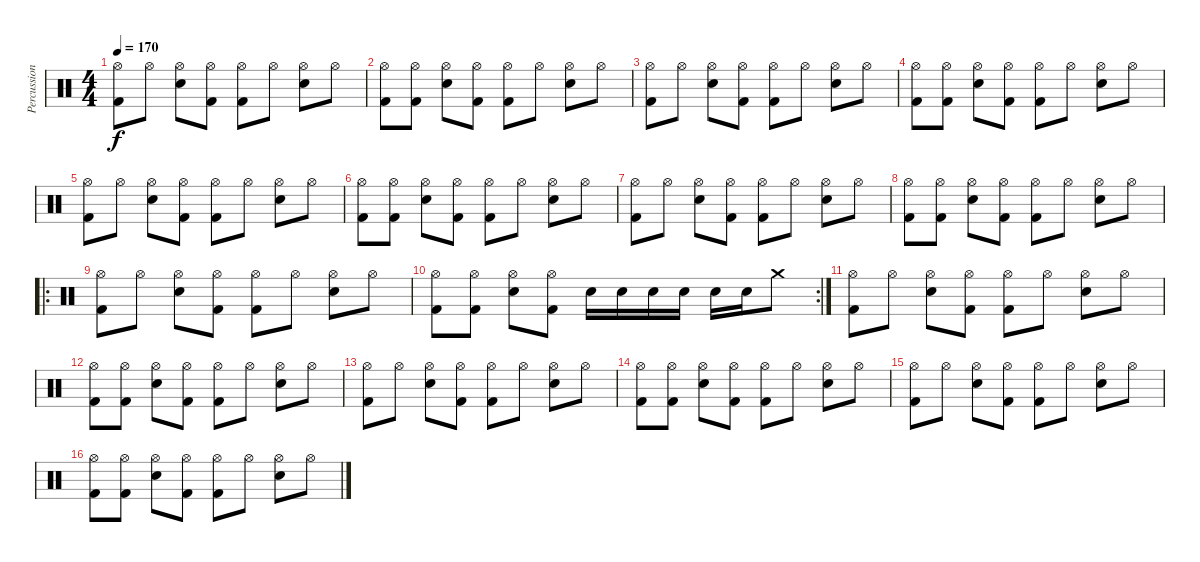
\track ("Percussion" "Percussion") {instrument percussion}
\staff {score}
\articulation defaults
\ts (4 4)
\tempo 170
\clef neutral
\ks c
("Hi-Hat (open)" "Kick (hit) 2").8{dy f} "Hi-Hat (open)".8 ("Hi-Hat (open)" "Snare (hit) 2").8 ("Hi-Hat (open)" "Kick (hit) 2").8 ("Hi-Hat (open)" "Kick (hit) 2").8 "Hi-Hat (open)".8 ("Hi-Hat (open)" "Snare (hit) 2").8 "Hi-Hat (open)".8 |
("Hi-Hat (open)" "Kick (hit) 2").8 ("Hi-Hat (open)" "Kick (hit) 2").8 ("Hi-Hat (open)" "Snare (hit) 2").8 ("Hi-Hat (open)" "Kick (hit) 2").8 ("Hi-Hat (open)" "Kick (hit) 2").8 "Hi-Hat (open)".8 ("Hi-Hat (open)" "Snare (hit) 2").8 "Hi-Hat (open)".8 |
("Hi-Hat (open)" "Kick (hit) 2").8 "Hi-Hat (open)".8 ("Hi-Hat (open)" "Snare (hit) 2").8 ("Hi-Hat (open)" "Kick (hit) 2").8 ("Hi-Hat (open)" "Kick (hit) 2").8 "Hi-Hat (open)".8 ("Hi-Hat (open)" "Snare (hit) 2").8 "Hi-Hat (open)".8 |
("Hi-Hat (open)" "Kick (hit) 2").8 ("Hi-Hat (open)" "Kick (hit) 2").8 ("Hi-Hat (open)" "Snare (hit) 2").8 ("Hi-Hat (open)" "Kick (hit) 2").8 ("Hi-Hat (open)" "Kick (hit) 2").8 "Hi-Hat (open)".8 ("Hi-Hat (open)" "Snare (hit) 2").8 "Hi-Hat (open)".8 |
("Hi-Hat (open)" "Kick (hit) 2").8 "Hi-Hat (open)".8 ("Hi-Hat (open)" "Snare (hit) 2").8 ("Hi-Hat (open)" "Kick (hit) 2").8 ("Hi-Hat (open)" "Kick (hit) 2").8 "Hi-Hat (open)".8 ("Hi-Hat (open)" "Snare (hit) 2").8 "Hi-Hat (open)".8 |
("Hi-Hat (open)" "Kick (hit) 2").8 ("Hi-Hat (open)" "Kick (hit) 2").8 ("Hi-Hat (open)" "Snare (hit) 2").8 ("Hi-Hat (open)" "Kick (hit) 2").8 ("Hi-Hat (open)" "Kick (hit) 2").8 "Hi-Hat (open)".8 ("Hi-Hat (open)" "Snare (hit) 2").8 "Hi-Hat (open)".8 |
("Hi-Hat (open)" "Kick (hit) 2").8 "Hi-Hat (open)".8 ("Hi-Hat (open)" "Snare (hit) 2").8 ("Hi-Hat (open)" "Kick (hit) 2").8 ("Hi-Hat (open)" "Kick (hit) 2").8 "Hi-Hat (open)".8 ("Hi-Hat (open)" "Snare (hit) 2").8 "Hi-Hat (open)".8 |
("Hi-Hat (open)" "Kick (hit) 2").8 ("Hi-Hat (open)" "Kick (hit) 2").8 ("Hi-Hat (open)" "Snare (hit) 2").8 ("Hi-Hat (open)" "Kick (hit) 2").8 ("Hi-Hat (open)" "Kick (hit) 2").8 "Hi-Hat (open)".8 ("Hi-Hat (open)" "Snare (hit) 2").8 "Hi-Hat (open)".8 |
\ro
("Hi-Hat (open)" "Kick (hit) 2").8 "Hi-Hat (open)".8 ("Hi-Hat (open)" "Snare (hit) 2").8 ("Hi-Hat (open)" "Kick (hit) 2").8 ("Hi-Hat (open)" "Kick (hit) 2").8 "Hi-Hat (open)".8 ("Hi-Hat (open)" "Snare (hit) 2").8 "Hi-Hat (open)".8 |
\rc 2
("Hi-Hat (open)" "Kick (hit) 2").8 ("Hi-Hat (open)" "Kick (hit) 2").8 ("Hi-Hat (open)" "Snare (hit) 2").8 ("Hi-Hat (open)" "Kick (hit) 2").8 "Snare (hit) 2".16 "Snare (hit) 2".16 "Snare (hit) 2".16 "Snare (hit) 2".16 "Snare (hit) 2".16 "Snare (hit) 2".16 "Crash medium (hit)".8 |
("Hi-Hat (open)" "Kick (hit) 2").8 "Hi-Hat (open)".8 ("Hi-Hat (open)" "Snare (hit) 2").8 ("Hi-Hat (open)" "Kick (hit) 2").8 ("Hi-Hat (open)" "Kick (hit) 2").8 "Hi-Hat (open)".8 ("Hi-Hat (open)" "Snare (hit) 2").8 "Hi-Hat (open)".8 |
("Hi-Hat (open)" "Kick (hit) 2").8 ("Hi-Hat (open)" "Kick (hit) 2").8 ("Hi-Hat (open)" "Snare (hit) 2").8 ("Hi-Hat (open)" "Kick (hit) 2").8 ("Hi-Hat (open)" "Kick (hit) 2").8 "Hi-Hat (open)".8 ("Hi-Hat (open)" "Snare (hit) 2").8 "Hi-Hat (open)".8 |
("Hi-Hat (open)" "Kick (hit) 2").8 "Hi-Hat (open)".8 ("Hi-Hat (open)" "Snare (hit) 2").8 ("Hi-Hat (open)" "Kick (hit) 2").8 ("Hi-Hat (open)" "Kick (hit) 2").8 "Hi-Hat (open)".8 ("Hi-Hat (open)" "Snare (hit) 2").8 "Hi-Hat (open)".8 |
("Hi-Hat (open)" "Kick (hit) 2").8 ("Hi-Hat (open)" "Kick (hit) 2").8 ("Hi-Hat (open)" "Snare (hit) 2").8 ("Hi-Hat (open)" "Kick (hit) 2").8 ("Hi-Hat (open)" "Kick (hit) 2").8 "Hi-Hat (open)".8 ("Hi-Hat (open)" "Snare (hit) 2").8 "Hi-Hat (open)".8 |
("Hi-Hat (open)" "Kick (hit) 2").8 "Hi-Hat (open)".8 ("Hi-Hat (open)" "Snare (hit) 2").8 ("Hi-Hat (open)" "Kick (hit) 2").8 ("Hi-Hat (open)" "Kick (hit) 2").8 "Hi-Hat (open)".8 ("Hi-Hat (open)" "Snare (hit) 2").8 "Hi-Hat (open)".8 |
("Hi-Hat (open)" "Kick (hit) 2").8 ("Hi-Hat (open)" "Kick (hit) 2").8 ("Hi-Hat (open)" "Snare (hit) 2").8 ("Hi-Hat (open)" "Kick (hit) 2").8 ("Hi-Hat (open)" "Kick (hit) 2").8 "Hi-Hat (open)".8 ("Hi-Hat (open)" "Snare (hit) 2").8 "Hi-Hat (open)".8
